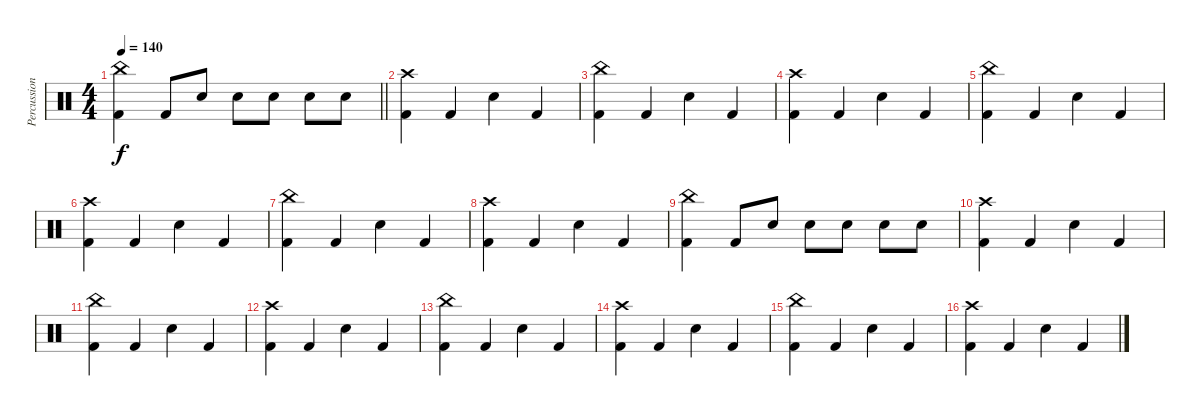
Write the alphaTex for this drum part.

\track ("Percussion" "Percussion") {instrument percussion}
\staff {score}
\articulation defaults
\ts (4 4)
\tempo 140
\clef neutral
\barLineRight lightlight
\ks c
("Kick (hit) 2" "China (hit)").4{dy f} "Kick (hit) 2".8 "Snare (hit) 2".8 "Snare (hit) 2".8 "Snare (hit) 2".8 "Snare (hit) 2".8 "Snare (hit) 2".8 |
\section ("" "")
("Kick (hit) 2" "Crash high (hit)").4 "Kick (hit) 2".4 "Snare (hit) 2".4 "Kick (hit) 2".4 |
("Kick (hit) 2" "China (hit)").4 "Kick (hit) 2".4 "Snare (hit) 2".4 "Kick (hit) 2".4 |
("Kick (hit) 2" "Crash high (hit)").4 "Kick (hit) 2".4 "Snare (hit) 2".4 "Kick (hit) 2".4 |
("Kick (hit) 2" "China (hit)").4 "Kick (hit) 2".4 "Snare (hit) 2".4 "Kick (hit) 2".4 |
("Kick (hit) 2" "Crash high (hit)").4 "Kick (hit) 2".4 "Snare (hit) 2".4 "Kick (hit) 2".4 |
("Kick (hit) 2" "China (hit)").4 "Kick (hit) 2".4 "Snare (hit) 2".4 "Kick (hit) 2".4 |
("Kick (hit) 2" "Crash high (hit)").4 "Kick (hit) 2".4 "Snare (hit) 2".4 "Kick (hit) 2".4 |
("Kick (hit) 2" "China (hit)").4 "Kick (hit) 2".8 "Snare (hit) 2".8 "Snare (hit) 2".8 "Snare (hit) 2".8 "Snare (hit) 2".8 "Snare (hit) 2".8 |
("Kick (hit) 2" "Crash high (hit)").4 "Kick (hit) 2".4 "Snare (hit) 2".4 "Kick (hit) 2".4 |
("Kick (hit) 2" "China (hit)").4 "Kick (hit) 2".4 "Snare (hit) 2".4 "Kick (hit) 2".4 |
("Kick (hit) 2" "Crash high (hit)").4 "Kick (hit) 2".4 "Snare (hit) 2".4 "Kick (hit) 2".4 |
("Kick (hit) 2" "China (hit)").4 "Kick (hit) 2".4 "Snare (hit) 2".4 "Kick (hit) 2".4 |
("Kick (hit) 2" "Crash high (hit)").4 "Kick (hit) 2".4 "Snare (hit) 2".4 "Kick (hit) 2".4 |
("Kick (hit) 2" "China (hit)").4 "Kick (hit) 2".4 "Snare (hit) 2".4 "Kick (hit) 2".4 |
("Kick (hit) 2" "Crash high (hit)").4 "Kick (hit) 2".4 "Snare (hit) 2".4 "Kick (hit) 2".4
